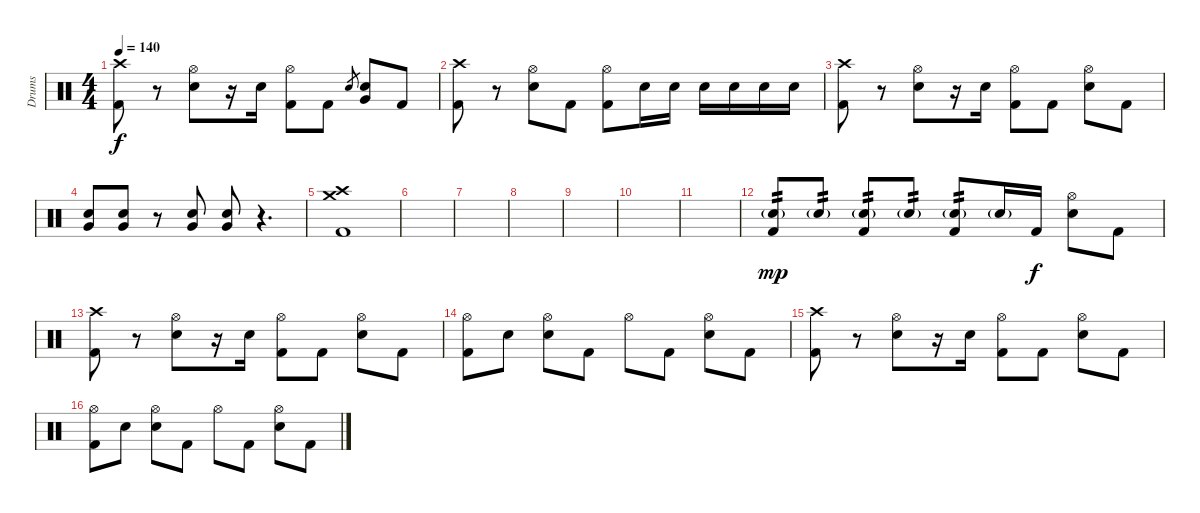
\track ("Drums" "Drums") {instrument percussion}
\staff {score}
\articulation defaults
\ts (4 4)
\tempo 140
\clef neutral
\ks c
("Crash high (hit)" "Kick (hit) 2").8{dy f} r.8 ("Hi-Hat (open)" "Electric Snare (hit)").8 r.16 "Electric Snare (hit)".16 ("Hi-Hat (open)" "Kick (hit) 2").8 "Kick (hit) 2".8 "Electric Snare (hit)".8{gr} ("Very Low Tom (hit)" "Electric Snare (hit)").8 "Kick (hit) 2".8 |
("Crash high (hit)" "Kick (hit) 2").8 r.8 ("Hi-Hat (open)" "Electric Snare (hit)").8 "Kick (hit) 2".8 ("Hi-Hat (open)" "Kick (hit) 2").8 "Electric Snare (hit)".16 "Electric Snare (hit)".16 "Electric Snare (hit)".16 "Electric Snare (hit)".16 "Electric Snare (hit)".16 "Electric Snare (hit)".16 |
("Crash high (hit)" "Kick (hit) 2").8 r.8 ("Hi-Hat (open)" "Electric Snare (hit)").8 r.16 "Electric Snare (hit)".16 ("Hi-Hat (open)" "Kick (hit) 2").8 "Kick (hit) 2".8 ("Hi-Hat (open)" "Electric Snare (hit)").8 "Kick (hit) 2".8 |
("Very Low Tom (hit)" "Electric Snare (hit)").8 ("Very Low Tom (hit)" "Electric Snare (hit)").8 r.8 ("Very Low Tom (hit)" "Electric Snare (hit)").8 ("Very Low Tom (hit)" "Electric Snare (hit)").8 r.4{d} |
("Crash high (hit)" "Crash medium (hit)" "Kick (hit) 2").1 |
|
|
|
|
|
|
("Electric Snare (hit)"{g} "Kick (hit) 2").8{tp 2 dy mp} "Electric Snare (hit)"{g}.8{tp 2} ("Electric Snare (hit)"{g} "Kick (hit) 2").8{tp 2} "Electric Snare (hit)"{g}.8{tp 2} ("Electric Snare (hit)"{g} "Kick (hit) 2").8{tp 2} "Electric Snare (hit)"{g}.16 "Kick (hit) 2".16{dy f} ("Hi-Hat (open)" "Electric Snare (hit)").8 "Kick (hit) 2".8 |
("Crash high (hit)" "Kick (hit) 2").8 r.8 ("Hi-Hat (open)" "Electric Snare (hit)").8 r.16 "Electric Snare (hit)".16 ("Hi-Hat (open)" "Kick (hit) 2").8 "Kick (hit) 2".8 ("Hi-Hat (open)" "Electric Snare (hit)").8 "Kick (hit) 2".8 |
("Hi-Hat (open)" "Kick (hit) 2").8 "Electric Snare (hit)".8 ("Hi-Hat (open)" "Electric Snare (hit)").8 "Kick (hit) 2".8 "Hi-Hat (open)".8 "Kick (hit) 2".8 ("Hi-Hat (open)" "Electric Snare (hit)").8 "Kick (hit) 2".8 |
("Crash high (hit)" "Kick (hit) 2").8 r.8 ("Hi-Hat (open)" "Electric Snare (hit)").8 r.16 "Electric Snare (hit)".16 ("Hi-Hat (open)" "Kick (hit) 2").8 "Kick (hit) 2".8 ("Hi-Hat (open)" "Electric Snare (hit)").8 "Kick (hit) 2".8 |
("Hi-Hat (open)" "Kick (hit) 2").8 "Electric Snare (hit)".8 ("Hi-Hat (open)" "Electric Snare (hit)").8 "Kick (hit) 2".8 "Hi-Hat (open)".8 "Kick (hit) 2".8 ("Hi-Hat (open)" "Electric Snare (hit)").8 "Kick (hit) 2".8
